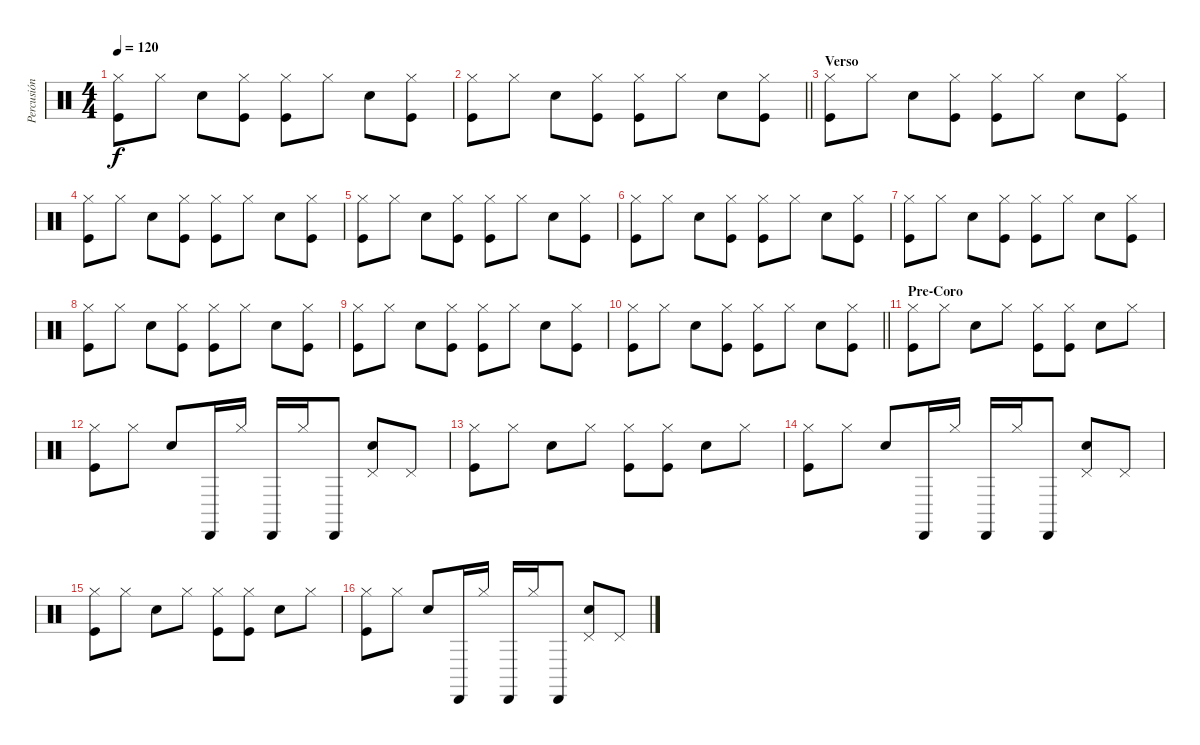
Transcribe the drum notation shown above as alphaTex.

\track ("Percusión" "Percusión") {instrument percussion}
\staff {score}
\articulation defaults
\ts (4 4)
\tempo 120
\clef neutral
\ks c
("Kick (hit)" "Hi-Hat (closed)").8{dy f} "Hi-Hat (closed)".8 "Electric Snare (hit)".8 ("Kick (hit)" "Hi-Hat (closed)").8 ("Kick (hit)" "Hi-Hat (closed)").8 "Hi-Hat (closed)".8 "Electric Snare (hit)".8 ("Kick (hit)" "Hi-Hat (closed)").8 |
\barLineRight lightlight
("Kick (hit)" "Hi-Hat (closed)").8 "Hi-Hat (closed)".8 "Electric Snare (hit)".8 ("Kick (hit)" "Hi-Hat (closed)").8 ("Kick (hit)" "Hi-Hat (closed)").8 "Hi-Hat (closed)".8 "Electric Snare (hit)".8 ("Kick (hit)" "Hi-Hat (closed)").8 |
\section ("" "Verso")
("Kick (hit)" "Hi-Hat (closed)").8 "Hi-Hat (closed)".8 "Electric Snare (hit)".8 ("Kick (hit)" "Hi-Hat (closed)").8 ("Kick (hit)" "Hi-Hat (closed)").8 "Hi-Hat (closed)".8 "Electric Snare (hit)".8 ("Kick (hit)" "Hi-Hat (closed)").8 |
("Kick (hit)" "Hi-Hat (closed)").8 "Hi-Hat (closed)".8 "Electric Snare (hit)".8 ("Kick (hit)" "Hi-Hat (closed)").8 ("Kick (hit)" "Hi-Hat (closed)").8 "Hi-Hat (closed)".8 "Electric Snare (hit)".8 ("Kick (hit)" "Hi-Hat (closed)").8 |
("Kick (hit)" "Hi-Hat (closed)").8 "Hi-Hat (closed)".8 "Electric Snare (hit)".8 ("Kick (hit)" "Hi-Hat (closed)").8 ("Kick (hit)" "Hi-Hat (closed)").8 "Hi-Hat (closed)".8 "Electric Snare (hit)".8 ("Kick (hit)" "Hi-Hat (closed)").8 |
("Kick (hit)" "Hi-Hat (closed)").8 "Hi-Hat (closed)".8 "Electric Snare (hit)".8 ("Kick (hit)" "Hi-Hat (closed)").8 ("Kick (hit)" "Hi-Hat (closed)").8 "Hi-Hat (closed)".8 "Electric Snare (hit)".8 ("Kick (hit)" "Hi-Hat (closed)").8 |
("Kick (hit)" "Hi-Hat (closed)").8 "Hi-Hat (closed)".8 "Electric Snare (hit)".8 ("Kick (hit)" "Hi-Hat (closed)").8 ("Kick (hit)" "Hi-Hat (closed)").8 "Hi-Hat (closed)".8 "Electric Snare (hit)".8 ("Kick (hit)" "Hi-Hat (closed)").8 |
("Kick (hit)" "Hi-Hat (closed)").8 "Hi-Hat (closed)".8 "Electric Snare (hit)".8 ("Kick (hit)" "Hi-Hat (closed)").8 ("Kick (hit)" "Hi-Hat (closed)").8 "Hi-Hat (closed)".8 "Electric Snare (hit)".8 ("Kick (hit)" "Hi-Hat (closed)").8 |
("Kick (hit)" "Hi-Hat (closed)").8 "Hi-Hat (closed)".8 "Electric Snare (hit)".8 ("Kick (hit)" "Hi-Hat (closed)").8 ("Kick (hit)" "Hi-Hat (closed)").8 "Hi-Hat (closed)".8 "Electric Snare (hit)".8 ("Kick (hit)" "Hi-Hat (closed)").8 |
\barLineRight lightlight
("Kick (hit)" "Hi-Hat (closed)").8 "Hi-Hat (closed)".8 "Electric Snare (hit)".8 ("Kick (hit)" "Hi-Hat (closed)").8 ("Kick (hit)" "Hi-Hat (closed)").8 "Hi-Hat (closed)".8 "Electric Snare (hit)".8 ("Kick (hit)" "Hi-Hat (closed)").8 |
\section ("" "Pre-Coro")
("Kick (hit)" "Hi-Hat (closed)").8 "Hi-Hat (closed)".8 "Electric Snare (hit)".8 "Hi-Hat (closed)".8 ("Kick (hit)" "Hi-Hat (closed)").8 ("Kick (hit)" "Hi-Hat (closed)").8 "Electric Snare (hit)".8 "Hi-Hat (closed)".8 |
("Kick (hit)" "Hi-Hat (closed)").8 "Hi-Hat (closed)".8 "Electric Snare (hit)".8 "Cabasa (hit)".16 "Hi-Hat (closed)".16 "Cabasa (hit)".16 "Hi-Hat (closed)".16 "Cabasa (hit)".8 ("Electric Snare (hit)" "Pedal Hi-Hat (hit)").8 "Pedal Hi-Hat (hit)".8 |
("Kick (hit)" "Hi-Hat (closed)").8 "Hi-Hat (closed)".8 "Electric Snare (hit)".8 "Hi-Hat (closed)".8 ("Kick (hit)" "Hi-Hat (closed)").8 ("Kick (hit)" "Hi-Hat (closed)").8 "Electric Snare (hit)".8 "Hi-Hat (closed)".8 |
("Kick (hit)" "Hi-Hat (closed)").8 "Hi-Hat (closed)".8 "Electric Snare (hit)".8 "Cabasa (hit)".16 "Hi-Hat (closed)".16 "Cabasa (hit)".16 "Hi-Hat (closed)".16 "Cabasa (hit)".8 ("Electric Snare (hit)" "Pedal Hi-Hat (hit)").8 "Pedal Hi-Hat (hit)".8 |
("Kick (hit)" "Hi-Hat (closed)").8 "Hi-Hat (closed)".8 "Electric Snare (hit)".8 "Hi-Hat (closed)".8 ("Kick (hit)" "Hi-Hat (closed)").8 ("Kick (hit)" "Hi-Hat (closed)").8 "Electric Snare (hit)".8 "Hi-Hat (closed)".8 |
("Kick (hit)" "Hi-Hat (closed)").8 "Hi-Hat (closed)".8 "Electric Snare (hit)".8 "Cabasa (hit)".16 "Hi-Hat (closed)".16 "Cabasa (hit)".16 "Hi-Hat (closed)".16 "Cabasa (hit)".8 ("Electric Snare (hit)" "Pedal Hi-Hat (hit)").8 "Pedal Hi-Hat (hit)".8
